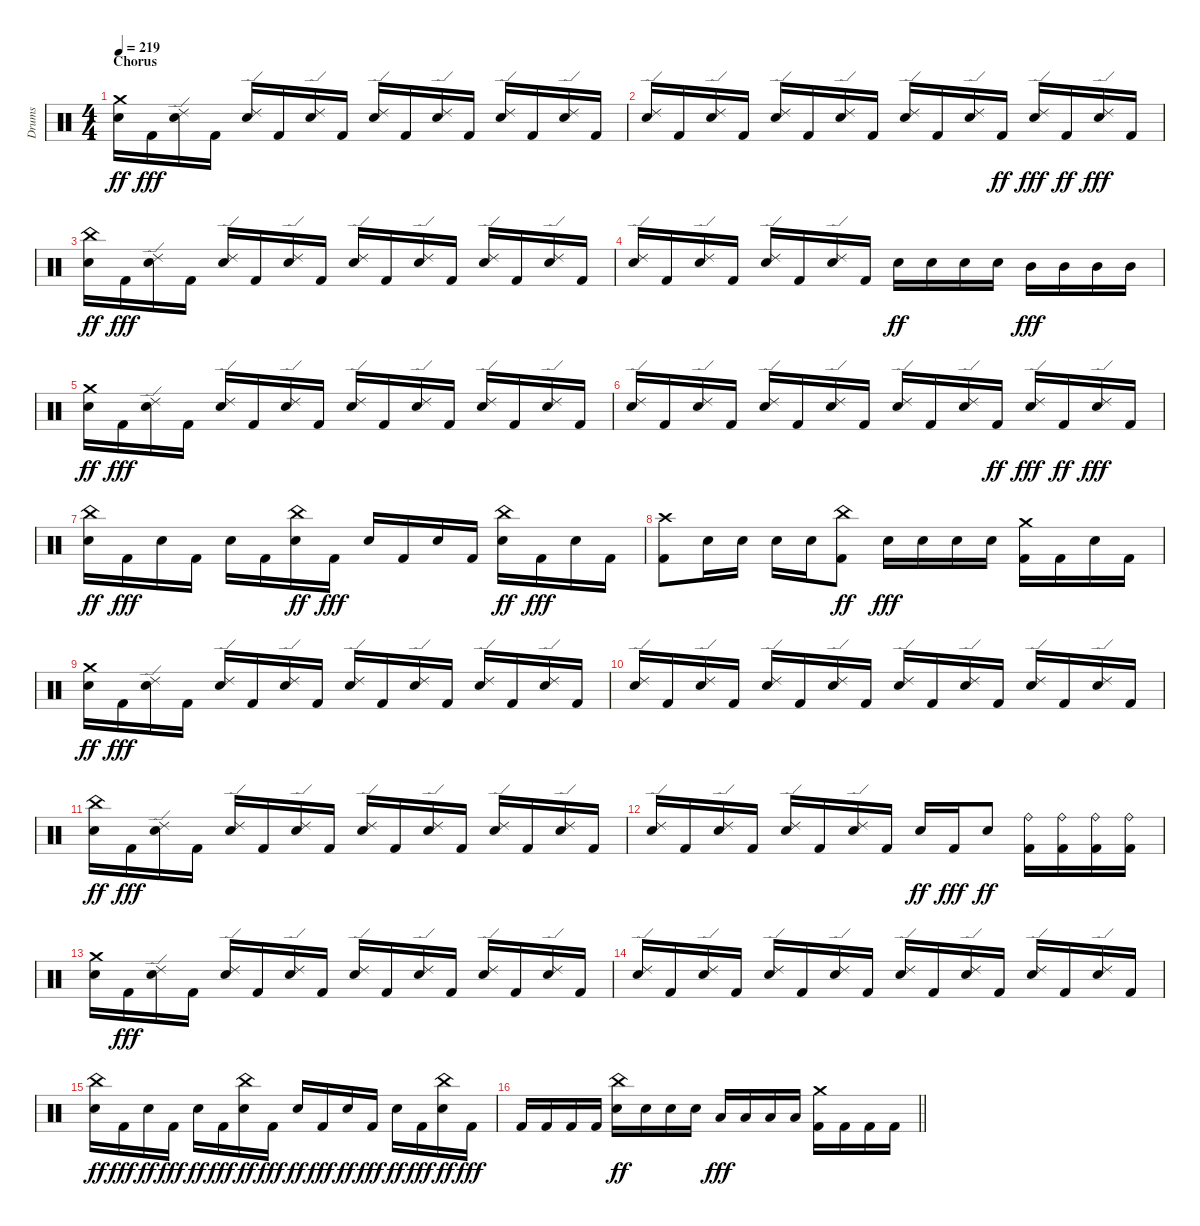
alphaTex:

\track ("Drums" "Drums") {instrument percussion}
\staff {score}
\articulation defaults
\ts (4 4)
\section ("" "Chorus")
\tempo 219
\clef neutral
\ks c
("Snare (hit) 2" "Crash medium (hit)").16{dy ff} "Kick (hit) 2".16{dy fff} ("Snare (hit) 2" "Ride (edge) 2").16 "Kick (hit) 2".16 ("Snare (hit) 2" "Ride (edge) 2").16 "Kick (hit) 2".16 ("Snare (hit) 2" "Ride (edge) 2").16 "Kick (hit) 2".16 ("Snare (hit) 2" "Ride (edge) 2").16 "Kick (hit) 2".16 ("Snare (hit) 2" "Ride (edge) 2").16 "Kick (hit) 2".16 ("Snare (hit) 2" "Ride (edge) 2").16 "Kick (hit) 2".16 ("Snare (hit) 2" "Ride (edge) 2").16 "Kick (hit) 2".16 |
("Snare (hit) 2" "Ride (edge) 2").16 "Kick (hit) 2".16 ("Snare (hit) 2" "Ride (edge) 2").16 "Kick (hit) 2".16 ("Snare (hit) 2" "Ride (edge) 2").16 "Kick (hit) 2".16 ("Snare (hit) 2" "Ride (edge) 2").16 "Kick (hit) 2".16 ("Snare (hit) 2" "Ride (edge) 2").16 "Kick (hit) 2".16 ("Snare (hit) 2" "Ride (edge) 2").16 "Kick (hit) 2".16{dy ff} ("Snare (hit) 2" "Ride (edge) 2").16{dy fff} "Kick (hit) 2".16{dy ff} ("Snare (hit) 2" "Ride (edge) 2").16{dy fff} "Kick (hit) 2".16 |
("Snare (hit) 2" "China (hit)").16{dy ff} "Kick (hit) 2".16{dy fff} ("Snare (hit) 2" "Ride (edge) 2").16 "Kick (hit) 2".16 ("Snare (hit) 2" "Ride (edge) 2").16 "Kick (hit) 2".16 ("Snare (hit) 2" "Ride (edge) 2").16 "Kick (hit) 2".16 ("Snare (hit) 2" "Ride (edge) 2").16 "Kick (hit) 2".16 ("Snare (hit) 2" "Ride (edge) 2").16 "Kick (hit) 2".16 ("Snare (hit) 2" "Ride (edge) 2").16 "Kick (hit) 2".16 ("Snare (hit) 2" "Ride (edge) 2").16 "Kick (hit) 2".16 |
("Snare (hit) 2" "Ride (edge) 2").16 "Kick (hit) 2".16 ("Snare (hit) 2" "Ride (edge) 2").16 "Kick (hit) 2".16 ("Snare (hit) 2" "Ride (edge) 2").16 "Kick (hit) 2".16 ("Snare (hit) 2" "Ride (edge) 2").16 "Kick (hit) 2".16 "Snare (hit) 2".16{dy ff} "Snare (hit) 2".16 "Snare (hit) 2".16 "Snare (hit) 2".16 "Mid Tom (hit)".16{dy fff} "Mid Tom (hit)".16 "Mid Tom (hit)".16 "Mid Tom (hit)".16 |
("Snare (hit) 2" "Crash medium (hit)").16{dy ff} "Kick (hit) 2".16{dy fff} ("Snare (hit) 2" "Ride (edge) 2").16 "Kick (hit) 2".16 ("Snare (hit) 2" "Ride (edge) 2").16 "Kick (hit) 2".16 ("Snare (hit) 2" "Ride (edge) 2").16 "Kick (hit) 2".16 ("Snare (hit) 2" "Ride (edge) 2").16 "Kick (hit) 2".16 ("Snare (hit) 2" "Ride (edge) 2").16 "Kick (hit) 2".16 ("Snare (hit) 2" "Ride (edge) 2").16 "Kick (hit) 2".16 ("Snare (hit) 2" "Ride (edge) 2").16 "Kick (hit) 2".16 |
("Snare (hit) 2" "Ride (edge) 2").16 "Kick (hit) 2".16 ("Snare (hit) 2" "Ride (edge) 2").16 "Kick (hit) 2".16 ("Snare (hit) 2" "Ride (edge) 2").16 "Kick (hit) 2".16 ("Snare (hit) 2" "Ride (edge) 2").16 "Kick (hit) 2".16 ("Snare (hit) 2" "Ride (edge) 2").16 "Kick (hit) 2".16 ("Snare (hit) 2" "Ride (edge) 2").16 "Kick (hit) 2".16{dy ff} ("Snare (hit) 2" "Ride (edge) 2").16{dy fff} "Kick (hit) 2".16{dy ff} ("Snare (hit) 2" "Ride (edge) 2").16{dy fff} "Kick (hit) 2".16 |
("Snare (hit) 2" "China (hit)").16{dy ff} "Kick (hit) 2".16{dy fff} "Snare (hit) 2".16 "Kick (hit) 2".16 "Snare (hit) 2".16 "Kick (hit) 2".16 ("Snare (hit) 2" "China (hit)").16{dy ff} "Kick (hit) 2".16{dy fff} "Snare (hit) 2".16 "Kick (hit) 2".16 "Snare (hit) 2".16 "Kick (hit) 2".16 ("Snare (hit) 2" "China (hit)").16{dy ff} "Kick (hit) 2".16{dy fff} "Snare (hit) 2".16 "Kick (hit) 2".16 |
("Kick (hit) 2" "Crash high (hit)").8 "Snare (hit) 2".16 "Snare (hit) 2".16 "Snare (hit) 2".16 "Snare (hit) 2".16 ("Kick (hit) 2" "China (hit)").8{dy ff} "Snare (hit) 2".16{dy fff} "Snare (hit) 2".16 "Snare (hit) 2".16 "Snare (hit) 2".16 ("Kick (hit) 2" "Crash medium (hit)").16 "Kick (hit) 2".16 "Snare (hit) 2".16 "Kick (hit) 2".16 |
("Snare (hit) 2" "Crash medium (hit)").16{dy ff} "Kick (hit) 2".16{dy fff} ("Snare (hit) 2" "Ride (edge) 2").16 "Kick (hit) 2".16 ("Snare (hit) 2" "Ride (edge) 2").16 "Kick (hit) 2".16 ("Snare (hit) 2" "Ride (edge) 2").16 "Kick (hit) 2".16 ("Snare (hit) 2" "Ride (edge) 2").16 "Kick (hit) 2".16 ("Snare (hit) 2" "Ride (edge) 2").16 "Kick (hit) 2".16 ("Snare (hit) 2" "Ride (edge) 2").16 "Kick (hit) 2".16 ("Snare (hit) 2" "Ride (edge) 2").16 "Kick (hit) 2".16 |
("Snare (hit) 2" "Ride (edge) 2").16 "Kick (hit) 2".16 ("Snare (hit) 2" "Ride (edge) 2").16 "Kick (hit) 2".16 ("Snare (hit) 2" "Ride (edge) 2").16 "Kick (hit) 2".16 ("Snare (hit) 2" "Ride (edge) 2").16 "Kick (hit) 2".16 ("Snare (hit) 2" "Ride (edge) 2").16 "Kick (hit) 2".16 ("Snare (hit) 2" "Ride (edge) 2").16 "Kick (hit) 2".16 ("Snare (hit) 2" "Ride (edge) 2").16 "Kick (hit) 2".16 ("Snare (hit) 2" "Ride (edge) 2").16 "Kick (hit) 2".16 |
("Snare (hit) 2" "China (hit)").16{dy ff} "Kick (hit) 2".16{dy fff} ("Snare (hit) 2" "Ride (edge) 2").16 "Kick (hit) 2".16 ("Snare (hit) 2" "Ride (edge) 2").16 "Kick (hit) 2".16 ("Snare (hit) 2" "Ride (edge) 2").16 "Kick (hit) 2".16 ("Snare (hit) 2" "Ride (edge) 2").16 "Kick (hit) 2".16 ("Snare (hit) 2" "Ride (edge) 2").16 "Kick (hit) 2".16 ("Snare (hit) 2" "Ride (edge) 2").16 "Kick (hit) 2".16 ("Snare (hit) 2" "Ride (edge) 2").16 "Kick (hit) 2".16 |
("Snare (hit) 2" "Ride (edge) 2").16 "Kick (hit) 2".16 ("Snare (hit) 2" "Ride (edge) 2").16 "Kick (hit) 2".16 ("Snare (hit) 2" "Ride (edge) 2").16 "Kick (hit) 2".16 ("Snare (hit) 2" "Ride (edge) 2").16 "Kick (hit) 2".16 "Snare (hit) 2".16{dy ff} "Kick (hit) 2".16{dy fff} "Snare (hit) 2".8{dy ff} ("Kick (hit) 2" "Ride (bell)").16 ("Kick (hit) 2" "Ride (bell)").16 ("Kick (hit) 2" "Ride (bell)").16 ("Kick (hit) 2" "Ride (bell)").16 |
("Snare (hit) 2" "Crash medium (hit)").16 "Kick (hit) 2".16{dy fff} ("Snare (hit) 2" "Ride (edge) 2").16 "Kick (hit) 2".16 ("Snare (hit) 2" "Ride (edge) 2").16 "Kick (hit) 2".16 ("Snare (hit) 2" "Ride (edge) 2").16 "Kick (hit) 2".16 ("Snare (hit) 2" "Ride (edge) 2").16 "Kick (hit) 2".16 ("Snare (hit) 2" "Ride (edge) 2").16 "Kick (hit) 2".16 ("Snare (hit) 2" "Ride (edge) 2").16 "Kick (hit) 2".16 ("Snare (hit) 2" "Ride (edge) 2").16 "Kick (hit) 2".16 |
("Snare (hit) 2" "Ride (edge) 2").16 "Kick (hit) 2".16 ("Snare (hit) 2" "Ride (edge) 2").16 "Kick (hit) 2".16 ("Snare (hit) 2" "Ride (edge) 2").16 "Kick (hit) 2".16 ("Snare (hit) 2" "Ride (edge) 2").16 "Kick (hit) 2".16 ("Snare (hit) 2" "Ride (edge) 2").16 "Kick (hit) 2".16 ("Snare (hit) 2" "Ride (edge) 2").16 "Kick (hit) 2".16 ("Snare (hit) 2" "Ride (edge) 2").16 "Kick (hit) 2".16 ("Snare (hit) 2" "Ride (edge) 2").16 "Kick (hit) 2".16 |
("Snare (hit) 2" "China (hit)").16{dy ff} "Kick (hit) 2".16{dy fff} "Snare (hit) 2".16{dy ff} "Kick (hit) 2".16{dy fff} "Snare (hit) 2".16{dy ff} "Kick (hit) 2".16{dy fff} ("Snare (hit) 2" "China (hit)").16{dy ff} "Kick (hit) 2".16{dy fff} "Snare (hit) 2".16{dy ff} "Kick (hit) 2".16{dy fff} "Snare (hit) 2".16{dy ff} "Kick (hit) 2".16{dy fff} "Snare (hit) 2".16{dy ff} "Kick (hit) 2".16{dy fff} ("Snare (hit) 2" "China (hit)").16{dy ff} "Kick (hit) 2".16{dy fff} |
\barLineRight lightlight "Kick (hit) 2".16 "Kick (hit) 2".16 "Kick (hit) 2".16 "Kick (hit) 2".16
("Snare (hit) 2" "China (hit)").16{dy ff} "Snare (hit) 2".16 "Snare (hit) 2".16 "Snare (hit) 2".16 "Low Tom (hit)".16{dy fff} "Low Tom (hit)".16 "Low Tom (hit)".16 "Low Tom (hit)".16 ("Kick (hit) 2" "Crash medium (hit)").16 "Kick (hit) 2".16 "Kick (hit) 2".16 "Kick (hit) 2".16
